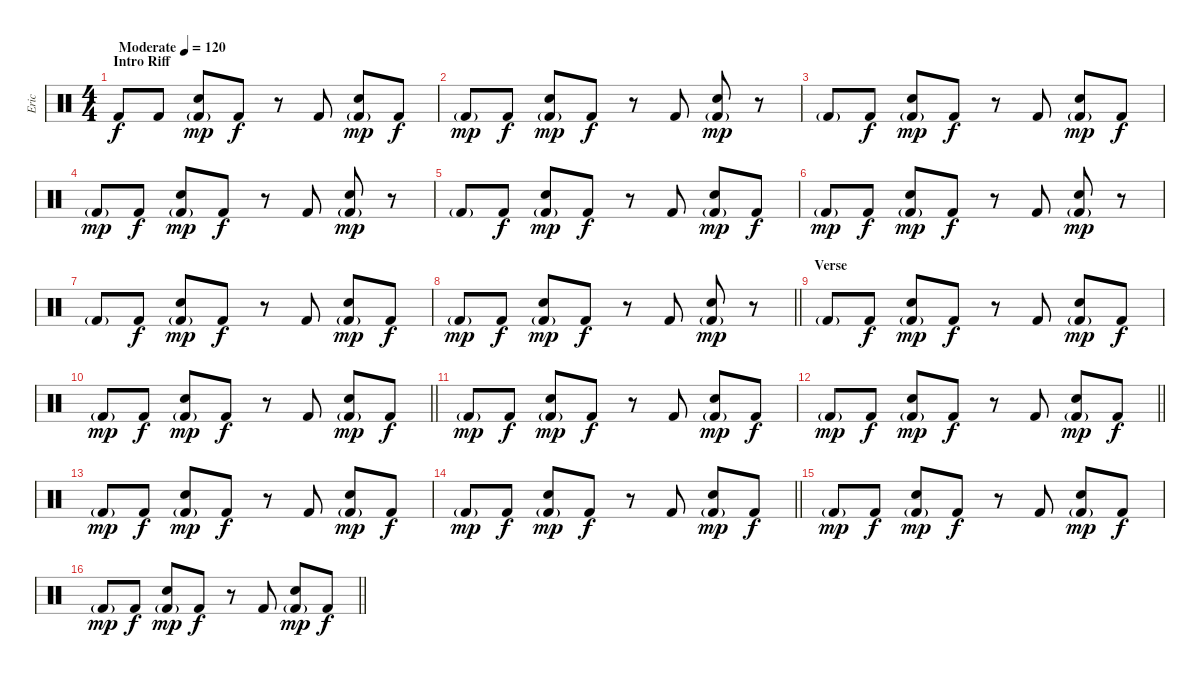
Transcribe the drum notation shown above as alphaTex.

\track ("Eric" "Eric") {instrument percussion}
\staff {score}
\articulation defaults
\ts (4 4)
\section ("" "Intro Riff")
\tempo (120 "Moderate")
\clef neutral
\ks c "Kick (hit) 2".8{dy f} "Kick (hit) 2".8
("Snare (hit) 2" "Kick (hit) 2"{g}).8{dy mp} "Kick (hit) 2".8{dy f} r.8 "Kick (hit) 2".8 ("Snare (hit) 2" "Kick (hit) 2"{g}).8{dy mp} "Kick (hit) 2".8{dy f} |
"Kick (hit) 2"{g}.8{dy mp} "Kick (hit) 2".8{dy f} ("Snare (hit) 2" "Kick (hit) 2"{g}).8{dy mp} "Kick (hit) 2".8{dy f} r.8 "Kick (hit) 2".8 ("Snare (hit) 2" "Kick (hit) 2"{g}).8{dy mp} r.8 |
"Kick (hit) 2"{g}.8 "Kick (hit) 2".8{dy f} ("Snare (hit) 2" "Kick (hit) 2"{g}).8{dy mp} "Kick (hit) 2".8{dy f} r.8 "Kick (hit) 2".8 ("Snare (hit) 2" "Kick (hit) 2"{g}).8{dy mp} "Kick (hit) 2".8{dy f} |
"Kick (hit) 2"{g}.8{dy mp} "Kick (hit) 2".8{dy f} ("Snare (hit) 2" "Kick (hit) 2"{g}).8{dy mp} "Kick (hit) 2".8{dy f} r.8 "Kick (hit) 2".8 ("Snare (hit) 2" "Kick (hit) 2"{g}).8{dy mp} r.8 |
"Kick (hit) 2"{g}.8 "Kick (hit) 2".8{dy f} ("Snare (hit) 2" "Kick (hit) 2"{g}).8{dy mp} "Kick (hit) 2".8{dy f} r.8 "Kick (hit) 2".8 ("Snare (hit) 2" "Kick (hit) 2"{g}).8{dy mp} "Kick (hit) 2".8{dy f} |
"Kick (hit) 2"{g}.8{dy mp} "Kick (hit) 2".8{dy f} ("Snare (hit) 2" "Kick (hit) 2"{g}).8{dy mp} "Kick (hit) 2".8{dy f} r.8 "Kick (hit) 2".8 ("Snare (hit) 2" "Kick (hit) 2"{g}).8{dy mp} r.8 |
"Kick (hit) 2"{g}.8 "Kick (hit) 2".8{dy f} ("Snare (hit) 2" "Kick (hit) 2"{g}).8{dy mp} "Kick (hit) 2".8{dy f} r.8 "Kick (hit) 2".8 ("Snare (hit) 2" "Kick (hit) 2"{g}).8{dy mp} "Kick (hit) 2".8{dy f} |
\barLineRight lightlight "Kick (hit) 2"{g}.8{dy mp} "Kick (hit) 2".8{dy f}
("Snare (hit) 2" "Kick (hit) 2"{g}).8{dy mp} "Kick (hit) 2".8{dy f} r.8 "Kick (hit) 2".8 ("Snare (hit) 2" "Kick (hit) 2"{g}).8{dy mp} r.8 |
\section ("" "Verse")
"Kick (hit) 2"{g}.8 "Kick (hit) 2".8{dy f} ("Snare (hit) 2" "Kick (hit) 2"{g}).8{dy mp} "Kick (hit) 2".8{dy f} r.8 "Kick (hit) 2".8 ("Snare (hit) 2" "Kick (hit) 2"{g}).8{dy mp} "Kick (hit) 2".8{dy f} |
\barLineRight lightlight "Kick (hit) 2"{g}.8{dy mp} "Kick (hit) 2".8{dy f}
("Snare (hit) 2" "Kick (hit) 2"{g}).8{dy mp} "Kick (hit) 2".8{dy f} r.8 "Kick (hit) 2".8 ("Snare (hit) 2" "Kick (hit) 2"{g}).8{dy mp} "Kick (hit) 2".8{dy f} |
"Kick (hit) 2"{g}.8{dy mp} "Kick (hit) 2".8{dy f} ("Snare (hit) 2" "Kick (hit) 2"{g}).8{dy mp} "Kick (hit) 2".8{dy f} r.8 "Kick (hit) 2".8 ("Snare (hit) 2" "Kick (hit) 2"{g}).8{dy mp} "Kick (hit) 2".8{dy f} |
\barLineRight lightlight "Kick (hit) 2"{g}.8{dy mp} "Kick (hit) 2".8{dy f}
("Snare (hit) 2" "Kick (hit) 2"{g}).8{dy mp} "Kick (hit) 2".8{dy f} r.8 "Kick (hit) 2".8 ("Snare (hit) 2" "Kick (hit) 2"{g}).8{dy mp} "Kick (hit) 2".8{dy f} |
"Kick (hit) 2"{g}.8{dy mp} "Kick (hit) 2".8{dy f} ("Snare (hit) 2" "Kick (hit) 2"{g}).8{dy mp} "Kick (hit) 2".8{dy f} r.8 "Kick (hit) 2".8 ("Snare (hit) 2" "Kick (hit) 2"{g}).8{dy mp} "Kick (hit) 2".8{dy f} |
\barLineRight lightlight "Kick (hit) 2"{g}.8{dy mp} "Kick (hit) 2".8{dy f}
("Snare (hit) 2" "Kick (hit) 2"{g}).8{dy mp} "Kick (hit) 2".8{dy f} r.8 "Kick (hit) 2".8 ("Snare (hit) 2" "Kick (hit) 2"{g}).8{dy mp} "Kick (hit) 2".8{dy f} |
"Kick (hit) 2"{g}.8{dy mp} "Kick (hit) 2".8{dy f} ("Snare (hit) 2" "Kick (hit) 2"{g}).8{dy mp} "Kick (hit) 2".8{dy f} r.8 "Kick (hit) 2".8 ("Snare (hit) 2" "Kick (hit) 2"{g}).8{dy mp} "Kick (hit) 2".8{dy f} |
\barLineRight lightlight "Kick (hit) 2"{g}.8{dy mp} "Kick (hit) 2".8{dy f}
("Snare (hit) 2" "Kick (hit) 2"{g}).8{dy mp} "Kick (hit) 2".8{dy f} r.8 "Kick (hit) 2".8 ("Snare (hit) 2" "Kick (hit) 2"{g}).8{dy mp} "Kick (hit) 2".8{dy f}
